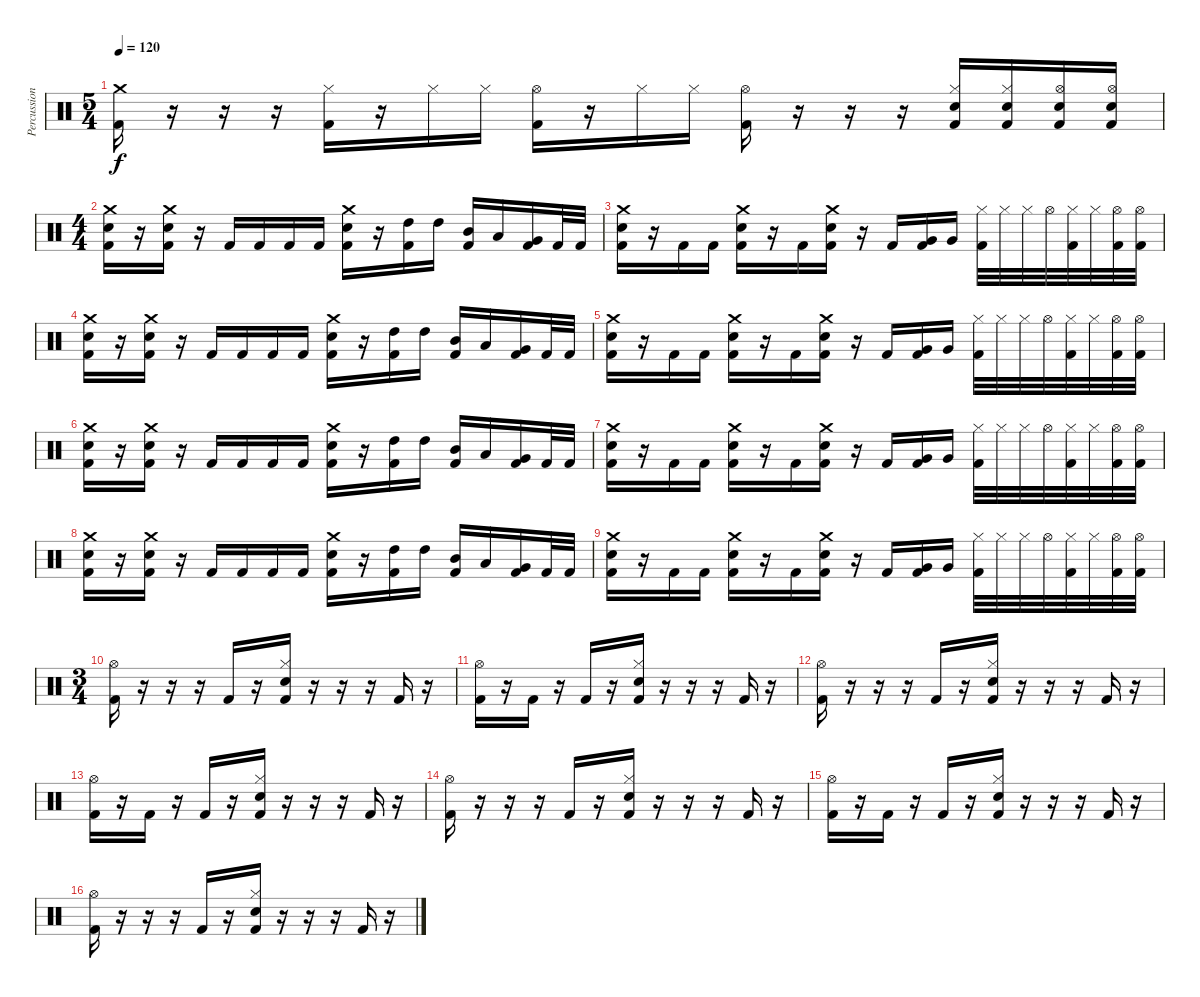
\track ("Percussion" "Percussion") {instrument percussion}
\staff {score}
\articulation defaults
\ts (5 4)
\tempo 120
\clef neutral
\ks c
("Crash medium (hit)" "Kick (hit) 2").16{dy f} r.16 r.16 r.16 ("Hi-Hat (closed)" "Kick (hit) 2").16 r.16 "Hi-Hat (closed)".16 "Hi-Hat (closed)".16 ("Hi-Hat (open)" "Kick (hit) 2").16 r.16 "Hi-Hat (closed)".16 "Hi-Hat (closed)".16 ("Hi-Hat (open)" "Kick (hit) 2").16 r.16 r.16 r.16 ("Hi-Hat (closed)" "Electric Snare (hit)" "Kick (hit) 2").16 ("Hi-Hat (closed)" "Electric Snare (hit)" "Kick (hit) 2").16 ("Hi-Hat (open)" "Electric Snare (hit)" "Kick (hit) 2").16 ("Hi-Hat (open)" "Electric Snare (hit)" "Kick (hit) 2").16 |
\ts (4 4)
("Crash medium (hit)" "Electric Snare (hit)" "Kick (hit) 2").16 r.16 ("Crash medium (hit)" "Electric Snare (hit)" "Kick (hit) 2").16 r.16 "Kick (hit) 2".16 "Kick (hit) 2".16 "Kick (hit) 2".16 "Kick (hit) 2".16 ("Crash medium (hit)" "Electric Snare (hit)" "Kick (hit) 2").16 r.16 ("High Tom (hit)" "Kick (hit) 2").16 "High Tom (hit)".16 ("Mid Tom (hit)" "Kick (hit) 2").16 "Low Tom (hit)".16 ("Very Low Tom (hit)" "Kick (hit) 2").16 "Kick (hit) 2".32 "Kick (hit) 2".32 |
("Crash medium (hit)" "Electric Snare (hit)" "Kick (hit) 2").16 r.16 "Kick (hit) 2".16 "Kick (hit) 2".16 ("Crash medium (hit)" "Electric Snare (hit)" "Kick (hit) 2").16 r.16 "Kick (hit) 2".16 ("Crash medium (hit)" "Electric Snare (hit)" "Kick (hit) 2").16 r.16 "Kick (hit) 2".16 ("Very Low Tom (hit)" "Kick (hit) 2").16 "Very Low Tom (hit)".16 ("Hi-Hat (closed)" "Kick (hit) 2").32 "Hi-Hat (closed)".32 "Hi-Hat (closed)".32 "Hi-Hat (open)".32 ("Hi-Hat (closed)" "Kick (hit) 2").32 "Hi-Hat (closed)".32 ("Hi-Hat (open)" "Kick (hit) 2").32 ("Hi-Hat (open)" "Kick (hit) 2").32 |
("Crash medium (hit)" "Electric Snare (hit)" "Kick (hit) 2").16 r.16 ("Crash medium (hit)" "Electric Snare (hit)" "Kick (hit) 2").16 r.16 "Kick (hit) 2".16 "Kick (hit) 2".16 "Kick (hit) 2".16 "Kick (hit) 2".16 ("Crash medium (hit)" "Electric Snare (hit)" "Kick (hit) 2").16 r.16 ("High Tom (hit)" "Kick (hit) 2").16 "High Tom (hit)".16 ("Mid Tom (hit)" "Kick (hit) 2").16 "Low Tom (hit)".16 ("Very Low Tom (hit)" "Kick (hit) 2").16 "Kick (hit) 2".32 "Kick (hit) 2".32 |
("Crash medium (hit)" "Electric Snare (hit)" "Kick (hit) 2").16 r.16 "Kick (hit) 2".16 "Kick (hit) 2".16 ("Crash medium (hit)" "Electric Snare (hit)" "Kick (hit) 2").16 r.16 "Kick (hit) 2".16 ("Crash medium (hit)" "Electric Snare (hit)" "Kick (hit) 2").16 r.16 "Kick (hit) 2".16 ("Very Low Tom (hit)" "Kick (hit) 2").16 "Very Low Tom (hit)".16 ("Hi-Hat (closed)" "Kick (hit) 2").32 "Hi-Hat (closed)".32 "Hi-Hat (closed)".32 "Hi-Hat (open)".32 ("Hi-Hat (closed)" "Kick (hit) 2").32 "Hi-Hat (closed)".32 ("Hi-Hat (open)" "Kick (hit) 2").32 ("Hi-Hat (open)" "Kick (hit) 2").32 |
("Crash medium (hit)" "Electric Snare (hit)" "Kick (hit) 2").16 r.16 ("Crash medium (hit)" "Electric Snare (hit)" "Kick (hit) 2").16 r.16 "Kick (hit) 2".16 "Kick (hit) 2".16 "Kick (hit) 2".16 "Kick (hit) 2".16 ("Crash medium (hit)" "Electric Snare (hit)" "Kick (hit) 2").16 r.16 ("High Tom (hit)" "Kick (hit) 2").16 "High Tom (hit)".16 ("Mid Tom (hit)" "Kick (hit) 2").16 "Low Tom (hit)".16 ("Very Low Tom (hit)" "Kick (hit) 2").16 "Kick (hit) 2".32 "Kick (hit) 2".32 |
("Crash medium (hit)" "Electric Snare (hit)" "Kick (hit) 2").16 r.16 "Kick (hit) 2".16 "Kick (hit) 2".16 ("Crash medium (hit)" "Electric Snare (hit)" "Kick (hit) 2").16 r.16 "Kick (hit) 2".16 ("Crash medium (hit)" "Electric Snare (hit)" "Kick (hit) 2").16 r.16 "Kick (hit) 2".16 ("Very Low Tom (hit)" "Kick (hit) 2").16 "Very Low Tom (hit)".16 ("Hi-Hat (closed)" "Kick (hit) 2").32 "Hi-Hat (closed)".32 "Hi-Hat (closed)".32 "Hi-Hat (open)".32 ("Hi-Hat (closed)" "Kick (hit) 2").32 "Hi-Hat (closed)".32 ("Hi-Hat (open)" "Kick (hit) 2").32 ("Hi-Hat (open)" "Kick (hit) 2").32 |
("Crash medium (hit)" "Electric Snare (hit)" "Kick (hit) 2").16 r.16 ("Crash medium (hit)" "Electric Snare (hit)" "Kick (hit) 2").16 r.16 "Kick (hit) 2".16 "Kick (hit) 2".16 "Kick (hit) 2".16 "Kick (hit) 2".16 ("Crash medium (hit)" "Electric Snare (hit)" "Kick (hit) 2").16 r.16 ("High Tom (hit)" "Kick (hit) 2").16 "High Tom (hit)".16 ("Mid Tom (hit)" "Kick (hit) 2").16 "Low Tom (hit)".16 ("Very Low Tom (hit)" "Kick (hit) 2").16 "Kick (hit) 2".32 "Kick (hit) 2".32 |
("Crash medium (hit)" "Electric Snare (hit)" "Kick (hit) 2").16 r.16 "Kick (hit) 2".16 "Kick (hit) 2".16 ("Crash medium (hit)" "Electric Snare (hit)" "Kick (hit) 2").16 r.16 "Kick (hit) 2".16 ("Crash medium (hit)" "Electric Snare (hit)" "Kick (hit) 2").16 r.16 "Kick (hit) 2".16 ("Very Low Tom (hit)" "Kick (hit) 2").16 "Very Low Tom (hit)".16 ("Hi-Hat (closed)" "Kick (hit) 2").32 "Hi-Hat (closed)".32 "Hi-Hat (closed)".32 "Hi-Hat (open)".32 ("Hi-Hat (closed)" "Kick (hit) 2").32 "Hi-Hat (closed)".32 ("Hi-Hat (open)" "Kick (hit) 2").32 ("Hi-Hat (open)" "Kick (hit) 2").32 |
\ts (3 4)
("Hi-Hat (open)" "Kick (hit) 2").16 r.16 r.16 r.16 "Kick (hit) 2".16 r.16 ("Hi-Hat (closed)" "Electric Snare (hit)" "Kick (hit) 2").16 r.16 r.16 r.16 "Kick (hit) 2".16 r.16 |
("Hi-Hat (open)" "Kick (hit) 2").16 r.16 "Kick (hit) 2".16 r.16 "Kick (hit) 2".16 r.16 ("Hi-Hat (closed)" "Electric Snare (hit)" "Kick (hit) 2").16 r.16 r.16 r.16 "Kick (hit) 2".16 r.16 |
("Hi-Hat (open)" "Kick (hit) 2").16 r.16 r.16 r.16 "Kick (hit) 2".16 r.16 ("Hi-Hat (closed)" "Electric Snare (hit)" "Kick (hit) 2").16 r.16 r.16 r.16 "Kick (hit) 2".16 r.16 |
("Hi-Hat (open)" "Kick (hit) 2").16 r.16 "Kick (hit) 2".16 r.16 "Kick (hit) 2".16 r.16 ("Hi-Hat (closed)" "Electric Snare (hit)" "Kick (hit) 2").16 r.16 r.16 r.16 "Kick (hit) 2".16 r.16 |
("Hi-Hat (open)" "Kick (hit) 2").16 r.16 r.16 r.16 "Kick (hit) 2".16 r.16 ("Hi-Hat (closed)" "Electric Snare (hit)" "Kick (hit) 2").16 r.16 r.16 r.16 "Kick (hit) 2".16 r.16 |
("Hi-Hat (open)" "Kick (hit) 2").16 r.16 "Kick (hit) 2".16 r.16 "Kick (hit) 2".16 r.16 ("Hi-Hat (closed)" "Electric Snare (hit)" "Kick (hit) 2").16 r.16 r.16 r.16 "Kick (hit) 2".16 r.16 |
("Hi-Hat (open)" "Kick (hit) 2").16 r.16 r.16 r.16 "Kick (hit) 2".16 r.16 ("Hi-Hat (closed)" "Electric Snare (hit)" "Kick (hit) 2").16 r.16 r.16 r.16 "Kick (hit) 2".16 r.16
